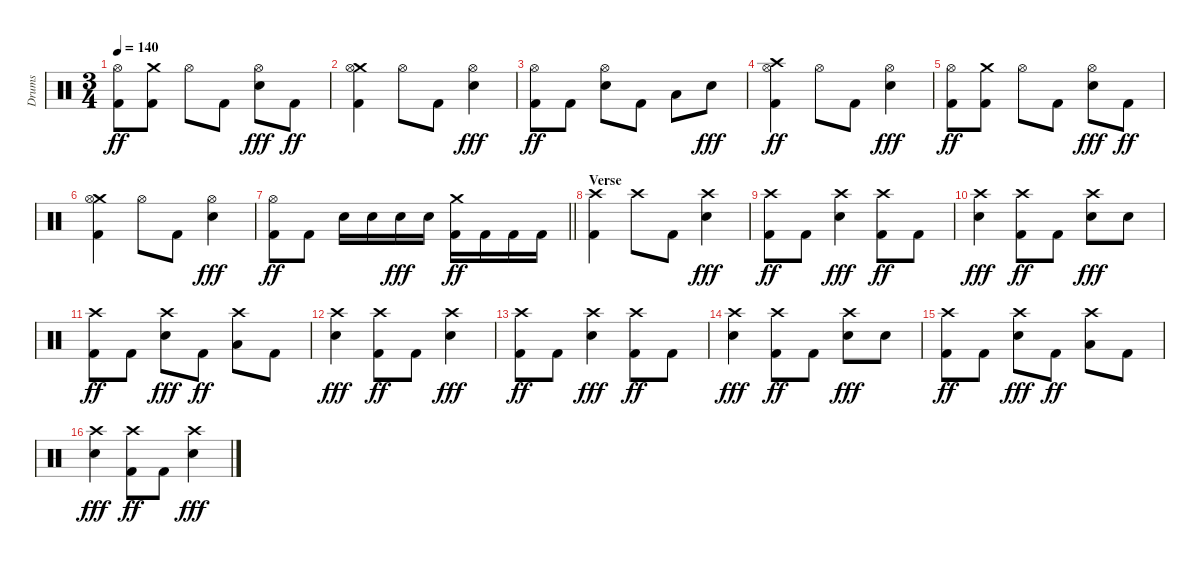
\track ("Drums" "Drums") {instrument percussion}
\staff {score}
\articulation defaults
\ts (3 4)
\tempo 140
\clef neutral
\ks c
("Hi-Hat (open)" "Kick (hit) 2").8{dy ff} ("Crash medium (hit)" "Kick (hit) 2").8 "Hi-Hat (open)".8 "Kick (hit) 2".8 ("Hi-Hat (open)" "Snare (hit) 2").8{dy fff} "Kick (hit) 2".8{dy ff} |
("Crash medium (hit)" "Hi-Hat (open)" "Kick (hit) 2").4 "Hi-Hat (open)".8 "Kick (hit) 2".8 ("Hi-Hat (open)" "Snare (hit) 2").4{dy fff} |
("Hi-Hat (open)" "Kick (hit) 2").8{dy ff} "Kick (hit) 2".8 ("Hi-Hat (open)" "Snare (hit) 2").8 "Kick (hit) 2".8 "Low Tom (hit)".8 "Snare (hit) 2".8{dy fff} |
("Crash high (hit)" "Hi-Hat (open)" "Kick (hit) 2").4{dy ff} "Hi-Hat (open)".8 "Kick (hit) 2".8 ("Hi-Hat (open)" "Snare (hit) 2").4{dy fff} |
("Hi-Hat (open)" "Kick (hit) 2").8{dy ff} ("Crash medium (hit)" "Kick (hit) 2").8 "Hi-Hat (open)".8 "Kick (hit) 2".8 ("Hi-Hat (open)" "Snare (hit) 2").8{dy fff} "Kick (hit) 2".8{dy ff} |
("Crash medium (hit)" "Hi-Hat (open)" "Kick (hit) 2").4 "Hi-Hat (open)".8 "Kick (hit) 2".8 ("Hi-Hat (open)" "Snare (hit) 2").4{dy fff} |
\barLineRight lightlight
("Hi-Hat (open)" "Kick (hit) 2").8{dy ff} "Kick (hit) 2".8 "Snare (hit) 2".16 "Snare (hit) 2".16 "Snare (hit) 2".16{dy fff} "Snare (hit) 2".16 ("Crash medium (hit)" "Kick (hit) 2").16{dy ff} "Kick (hit) 2".16 "Kick (hit) 2".16 "Kick (hit) 2".16 |
\section ("" "Verse")
("Crash high (hit)" "Kick (hit) 2").4 "Crash high (hit)".8 "Kick (hit) 2".8 ("Crash high (hit)" "Snare (hit) 2").4{dy fff} |
("Crash high (hit)" "Kick (hit) 2").8{dy ff} "Kick (hit) 2".8 ("Crash high (hit)" "Snare (hit) 2").4{dy fff} ("Crash high (hit)" "Kick (hit) 2").8{dy ff} "Kick (hit) 2".8 |
("Crash high (hit)" "Snare (hit) 2").4{dy fff} ("Crash high (hit)" "Kick (hit) 2").8{dy ff} "Kick (hit) 2".8 ("Crash high (hit)" "Snare (hit) 2").8{dy fff} "Snare (hit) 2".8 |
("Crash high (hit)" "Kick (hit) 2").8{dy ff} "Kick (hit) 2".8 ("Crash high (hit)" "Snare (hit) 2").8{dy fff} "Kick (hit) 2".8{dy ff} ("Crash high (hit)" "Low Tom (hit)").8 "Kick (hit) 2".8 |
("Crash high (hit)" "Snare (hit) 2").4{dy fff} ("Crash high (hit)" "Kick (hit) 2").8{dy ff} "Kick (hit) 2".8 ("Crash high (hit)" "Snare (hit) 2").4{dy fff} |
("Crash high (hit)" "Kick (hit) 2").8{dy ff} "Kick (hit) 2".8 ("Crash high (hit)" "Snare (hit) 2").4{dy fff} ("Crash high (hit)" "Kick (hit) 2").8{dy ff} "Kick (hit) 2".8 |
("Crash high (hit)" "Snare (hit) 2").4{dy fff} ("Crash high (hit)" "Kick (hit) 2").8{dy ff} "Kick (hit) 2".8 ("Crash high (hit)" "Snare (hit) 2").8{dy fff} "Snare (hit) 2".8 |
("Crash high (hit)" "Kick (hit) 2").8{dy ff} "Kick (hit) 2".8 ("Crash high (hit)" "Snare (hit) 2").8{dy fff} "Kick (hit) 2".8{dy ff} ("Crash high (hit)" "Low Tom (hit)").8 "Kick (hit) 2".8 |
("Crash high (hit)" "Snare (hit) 2").4{dy fff} ("Crash high (hit)" "Kick (hit) 2").8{dy ff} "Kick (hit) 2".8 ("Crash high (hit)" "Snare (hit) 2").4{dy fff}
